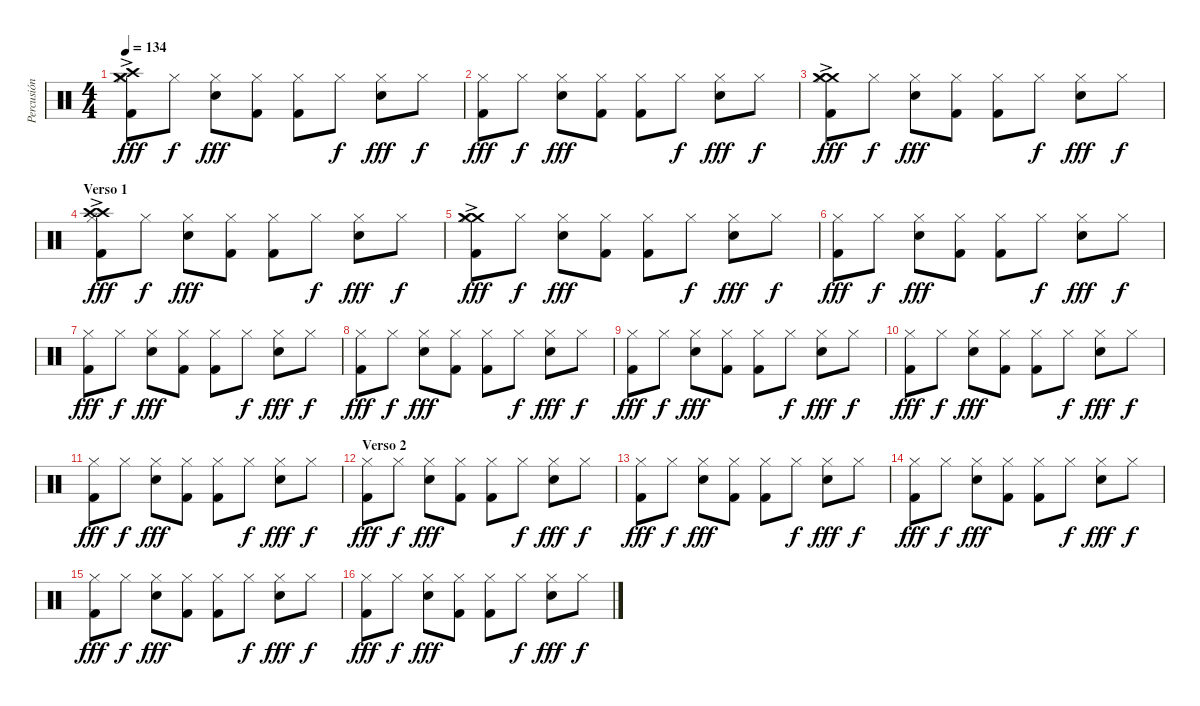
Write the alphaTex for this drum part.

\track ("Percusión" "Percusión") {instrument percussion}
\staff {score}
\articulation defaults
\ts (4 4)
\tempo 134
\clef neutral
\ks c
("Crash high (hit)" "Crash medium (hit)"{ac} "Hi-Hat (closed)" "Kick (hit) 2").8{dy fff} "Hi-Hat (closed)".8{dy f} ("Hi-Hat (closed)" "Electric Snare (hit)").8{dy fff} ("Hi-Hat (closed)" "Kick (hit) 2").8 ("Hi-Hat (closed)" "Kick (hit) 2").8 "Hi-Hat (closed)".8{dy f} ("Hi-Hat (closed)" "Electric Snare (hit)").8{dy fff} "Hi-Hat (closed)".8{dy f} |
("Hi-Hat (closed)" "Kick (hit) 2").8{dy fff} "Hi-Hat (closed)".8{dy f} ("Hi-Hat (closed)" "Electric Snare (hit)").8{dy fff} ("Hi-Hat (closed)" "Kick (hit) 2").8 ("Hi-Hat (closed)" "Kick (hit) 2").8 "Hi-Hat (closed)".8{dy f} ("Hi-Hat (closed)" "Electric Snare (hit)").8{dy fff} "Hi-Hat (closed)".8{dy f} |
("Crash medium (hit)"{ac} "Crash medium (hit)" "Hi-Hat (closed)" "Kick (hit) 2").8{dy fff} "Hi-Hat (closed)".8{dy f} ("Hi-Hat (closed)" "Electric Snare (hit)").8{dy fff} ("Hi-Hat (closed)" "Kick (hit) 2").8 ("Hi-Hat (closed)" "Kick (hit) 2").8 "Hi-Hat (closed)".8{dy f} ("Hi-Hat (closed)" "Electric Snare (hit)").8{dy fff} "Hi-Hat (closed)".8{dy f} |
\section ("" "Verso 1")
("Crash high (hit)"{ac} "Crash high (hit)" "Hi-Hat (closed)" "Kick (hit) 2").8{dy fff} "Hi-Hat (closed)".8{dy f} ("Hi-Hat (closed)" "Electric Snare (hit)").8{dy fff} ("Hi-Hat (closed)" "Kick (hit) 2").8 ("Hi-Hat (closed)" "Kick (hit) 2").8 "Hi-Hat (closed)".8{dy f} ("Hi-Hat (closed)" "Electric Snare (hit)").8{dy fff} "Hi-Hat (closed)".8{dy f} |
("Crash medium (hit)"{ac} "Crash medium (hit)"{ac} "Hi-Hat (closed)" "Kick (hit) 2").8{dy fff} "Hi-Hat (closed)".8{dy f} ("Hi-Hat (closed)" "Electric Snare (hit)").8{dy fff} ("Hi-Hat (closed)" "Kick (hit) 2").8 ("Hi-Hat (closed)" "Kick (hit) 2").8 "Hi-Hat (closed)".8{dy f} ("Hi-Hat (closed)" "Electric Snare (hit)").8{dy fff} "Hi-Hat (closed)".8{dy f} |
("Hi-Hat (closed)" "Kick (hit) 2").8{dy fff} "Hi-Hat (closed)".8{dy f} ("Hi-Hat (closed)" "Electric Snare (hit)").8{dy fff} ("Hi-Hat (closed)" "Kick (hit) 2").8 ("Hi-Hat (closed)" "Kick (hit) 2").8 "Hi-Hat (closed)".8{dy f} ("Hi-Hat (closed)" "Electric Snare (hit)").8{dy fff} "Hi-Hat (closed)".8{dy f} |
("Hi-Hat (closed)" "Kick (hit) 2").8{dy fff} "Hi-Hat (closed)".8{dy f} ("Hi-Hat (closed)" "Electric Snare (hit)").8{dy fff} ("Hi-Hat (closed)" "Kick (hit) 2").8 ("Hi-Hat (closed)" "Kick (hit) 2").8 "Hi-Hat (closed)".8{dy f} ("Hi-Hat (closed)" "Electric Snare (hit)").8{dy fff} "Hi-Hat (closed)".8{dy f} |
("Hi-Hat (closed)" "Kick (hit) 2").8{dy fff} "Hi-Hat (closed)".8{dy f} ("Hi-Hat (closed)" "Electric Snare (hit)").8{dy fff} ("Hi-Hat (closed)" "Kick (hit) 2").8 ("Hi-Hat (closed)" "Kick (hit) 2").8 "Hi-Hat (closed)".8{dy f} ("Hi-Hat (closed)" "Electric Snare (hit)").8{dy fff} "Hi-Hat (closed)".8{dy f} |
("Hi-Hat (closed)" "Kick (hit) 2").8{dy fff} "Hi-Hat (closed)".8{dy f} ("Hi-Hat (closed)" "Electric Snare (hit)").8{dy fff} ("Hi-Hat (closed)" "Kick (hit) 2").8 ("Hi-Hat (closed)" "Kick (hit) 2").8 "Hi-Hat (closed)".8{dy f} ("Hi-Hat (closed)" "Electric Snare (hit)").8{dy fff} "Hi-Hat (closed)".8{dy f} |
("Hi-Hat (closed)" "Kick (hit) 2").8{dy fff} "Hi-Hat (closed)".8{dy f} ("Hi-Hat (closed)" "Electric Snare (hit)").8{dy fff} ("Hi-Hat (closed)" "Kick (hit) 2").8 ("Hi-Hat (closed)" "Kick (hit) 2").8 "Hi-Hat (closed)".8{dy f} ("Hi-Hat (closed)" "Electric Snare (hit)").8{dy fff} "Hi-Hat (closed)".8{dy f} |
("Hi-Hat (closed)" "Kick (hit) 2").8{dy fff} "Hi-Hat (closed)".8{dy f} ("Hi-Hat (closed)" "Electric Snare (hit)").8{dy fff} ("Hi-Hat (closed)" "Kick (hit) 2").8 ("Hi-Hat (closed)" "Kick (hit) 2").8 "Hi-Hat (closed)".8{dy f} ("Hi-Hat (closed)" "Electric Snare (hit)").8{dy fff} "Hi-Hat (closed)".8{dy f} |
\section ("" "Verso 2")
("Hi-Hat (closed)" "Kick (hit) 2").8{dy fff} "Hi-Hat (closed)".8{dy f} ("Hi-Hat (closed)" "Electric Snare (hit)").8{dy fff} ("Hi-Hat (closed)" "Kick (hit) 2").8 ("Hi-Hat (closed)" "Kick (hit) 2").8 "Hi-Hat (closed)".8{dy f} ("Hi-Hat (closed)" "Electric Snare (hit)").8{dy fff} "Hi-Hat (closed)".8{dy f} |
("Hi-Hat (closed)" "Kick (hit) 2").8{dy fff} "Hi-Hat (closed)".8{dy f} ("Hi-Hat (closed)" "Electric Snare (hit)").8{dy fff} ("Hi-Hat (closed)" "Kick (hit) 2").8 ("Hi-Hat (closed)" "Kick (hit) 2").8 "Hi-Hat (closed)".8{dy f} ("Hi-Hat (closed)" "Electric Snare (hit)").8{dy fff} "Hi-Hat (closed)".8{dy f} |
("Hi-Hat (closed)" "Kick (hit) 2").8{dy fff} "Hi-Hat (closed)".8{dy f} ("Hi-Hat (closed)" "Electric Snare (hit)").8{dy fff} ("Hi-Hat (closed)" "Kick (hit) 2").8 ("Hi-Hat (closed)" "Kick (hit) 2").8 "Hi-Hat (closed)".8{dy f} ("Hi-Hat (closed)" "Electric Snare (hit)").8{dy fff} "Hi-Hat (closed)".8{dy f} |
("Hi-Hat (closed)" "Kick (hit) 2").8{dy fff} "Hi-Hat (closed)".8{dy f} ("Hi-Hat (closed)" "Electric Snare (hit)").8{dy fff} ("Hi-Hat (closed)" "Kick (hit) 2").8 ("Hi-Hat (closed)" "Kick (hit) 2").8 "Hi-Hat (closed)".8{dy f} ("Hi-Hat (closed)" "Electric Snare (hit)").8{dy fff} "Hi-Hat (closed)".8{dy f} |
("Hi-Hat (closed)" "Kick (hit) 2").8{dy fff} "Hi-Hat (closed)".8{dy f} ("Hi-Hat (closed)" "Electric Snare (hit)").8{dy fff} ("Hi-Hat (closed)" "Kick (hit) 2").8 ("Hi-Hat (closed)" "Kick (hit) 2").8 "Hi-Hat (closed)".8{dy f} ("Hi-Hat (closed)" "Electric Snare (hit)").8{dy fff} "Hi-Hat (closed)".8{dy f}
